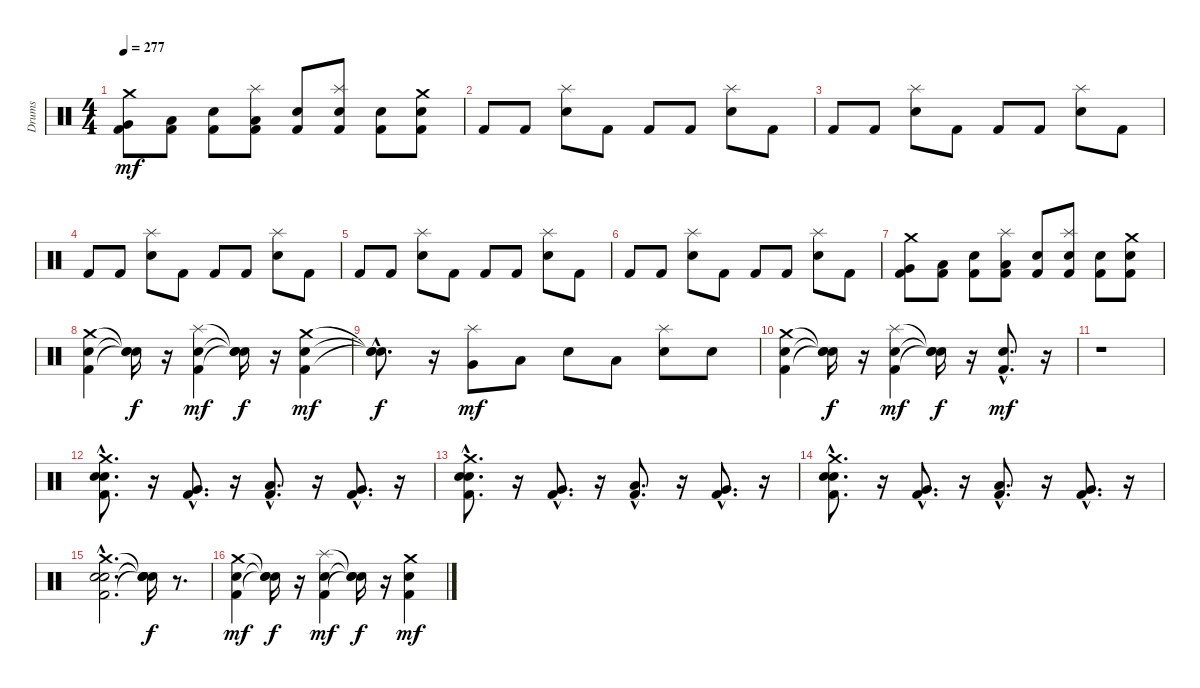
\track ("Drums" "Drums") {instrument percussion}
\staff {score}
\articulation defaults
\ts (4 4)
\tempo 277
\clef neutral
\ks c
("Crash medium (hit)" "Kick (hit) 2" "Very Low Tom (hit)").8{dy mf} ("Kick (hit) 2" "Low Floor Tom (hit)").8 ("Electric Snare (hit)" "Kick (hit) 2").8 ("Kick (hit) 2" "Low Floor Tom (hit)" "Splash (hit)").8 ("Electric Snare (hit)" "Kick (hit) 2").8 ("Kick (hit) 2" "Snare (hit) 2" "Splash (hit)").8 ("Electric Snare (hit)" "Kick (hit) 2").8 ("Crash medium (hit)" "Kick (hit) 2" "Snare (hit) 2").8 |
"Kick (hit) 2".8 "Kick (hit) 2".8 ("Splash (hit)" "Electric Snare (hit)").8 "Kick (hit) 2".8 "Kick (hit) 2".8 "Kick (hit) 2".8 ("Splash (hit)" "Electric Snare (hit)").8 "Kick (hit) 2".8 |
"Kick (hit) 2".8 "Kick (hit) 2".8 ("Splash (hit)" "Electric Snare (hit)").8 "Kick (hit) 2".8 "Kick (hit) 2".8 "Kick (hit) 2".8 ("Splash (hit)" "Electric Snare (hit)").8 "Kick (hit) 2".8 |
"Kick (hit) 2".8 "Kick (hit) 2".8 ("Splash (hit)" "Electric Snare (hit)").8 "Kick (hit) 2".8 "Kick (hit) 2".8 "Kick (hit) 2".8 ("Splash (hit)" "Electric Snare (hit)").8 "Kick (hit) 2".8 |
"Kick (hit) 2".8 "Kick (hit) 2".8 ("Splash (hit)" "Electric Snare (hit)").8 "Kick (hit) 2".8 "Kick (hit) 2".8 "Kick (hit) 2".8 ("Splash (hit)" "Electric Snare (hit)").8 "Kick (hit) 2".8 |
"Kick (hit) 2".8 "Kick (hit) 2".8 ("Electric Snare (hit)" "Splash (hit)").8 "Kick (hit) 2".8 "Kick (hit) 2".8 "Kick (hit) 2".8 ("Splash (hit)" "Electric Snare (hit)").8 "Kick (hit) 2".8 |
("Kick (hit) 2" "Crash medium (hit)" "Very Low Tom (hit)").8 ("Kick (hit) 2" "Low Floor Tom (hit)").8 ("Electric Snare (hit)" "Kick (hit) 2").8 ("Low Floor Tom (hit)" "Splash (hit)" "Kick (hit) 2").8 ("Kick (hit) 2" "Electric Snare (hit)").8 ("Splash (hit)" "Kick (hit) 2" "Snare (hit) 2").8 ("Electric Snare (hit)" "Kick (hit) 2").8 ("Kick (hit) 2" "Crash medium (hit)" "Snare (hit) 2").8 |
("Kick (hit) 2" "Snare (hit) 2" "Crash medium (hit)").4 ("Snare (hit)"{t} "Snare (hit)"{t} "Snare (hit)"{t}).16{dy f} r.16 ("Electric Snare (hit)" "Kick (hit) 2" "Splash (hit)").4{dy mf} ("Snare (hit)"{t} "Snare (hit)"{t} "Snare (hit)"{t}).16{dy f} r.16 ("Crash medium (hit)" "Kick (hit) 2" "Electric Snare (hit)").4{dy mf} |
("Snare (hit)"{hac t} "Snare (hit)"{hac t} "Snare (hit)"{hac t}).8{d dy f} r.16 ("Splash (hit)" "Very Low Tom (hit)").8{dy mf} "Low Floor Tom (hit)".8 "Snare (hit) 2".8 "Low Floor Tom (hit)".8 ("Electric Snare (hit)" "Splash (hit)").8 "Snare (hit) 2".8 |
("Crash medium (hit)" "Kick (hit) 2" "Snare (hit) 2").4 ("Snare (hit)"{t} "Snare (hit)"{t} "Snare (hit)"{t}).16{dy f} r.16 ("Splash (hit)" "Electric Snare (hit)" "Kick (hit) 2").4{dy mf} ("Snare (hit)"{t} "Snare (hit)"{t} "Snare (hit)"{t}).16{dy f} r.16 ("Electric Snare (hit)"{hac} "Kick (hit) 2"{hac}).8{d dy mf} r.16 |
r.1 |
("Electric Snare (hit)"{hac} "Kick (hit) 2"{hac} "Snare (hit) 2"{hac} "Crash medium (hit)"{hac}).8{d} r.16 ("Kick (hit) 2"{hac} "Very Low Tom (hit)"{hac}).8{d} r.16 ("Kick (hit) 2"{hac} "Low Floor Tom (hit)"{hac}).8{d} r.16 ("Kick (hit) 2"{hac} "Very Low Tom (hit)"{hac}).8{d} r.16 |
("Crash medium (hit)"{hac} "Kick (hit) 2"{hac} "Electric Snare (hit)"{hac} "Snare (hit) 2"{hac}).8{d} r.16 ("Very Low Tom (hit)"{hac} "Kick (hit) 2"{hac}).8{d} r.16 ("Kick (hit) 2"{hac} "Low Floor Tom (hit)"{hac}).8{d} r.16 ("Very Low Tom (hit)"{hac} "Kick (hit) 2"{hac}).8{d} r.16 |
("Crash medium (hit)"{hac} "Kick (hit) 2"{hac} "Snare (hit) 2"{hac} "Electric Snare (hit)"{hac}).8{d} r.16 ("Very Low Tom (hit)"{hac} "Kick (hit) 2"{hac}).8{d} r.16 ("Low Floor Tom (hit)"{hac} "Kick (hit) 2"{hac}).8{d} r.16 ("Kick (hit) 2"{hac} "Very Low Tom (hit)"{hac}).8{d} r.16 |
("Crash medium (hit)"{hac} "Snare (hit) 2"{hac} "Kick (hit) 2"{hac} "Electric Snare (hit)"{hac}).2{d} ("Snare (hit)"{t} "Snare (hit)"{t} "Snare (hit)"{t} "Snare (hit)"{t}).16{dy f} r.8{d} |
("Crash medium (hit)" "Snare (hit) 2" "Kick (hit) 2").4{dy mf} ("Snare (hit)"{t} "Snare (hit)"{t} "Snare (hit)"{t}).16{dy f} r.16 ("Kick (hit) 2" "Splash (hit)" "Electric Snare (hit)").4{dy mf} ("Snare (hit)"{t} "Snare (hit)"{t} "Snare (hit)"{t}).16{dy f} r.16 ("Crash medium (hit)" "Kick (hit) 2" "Electric Snare (hit)").4{dy mf}
